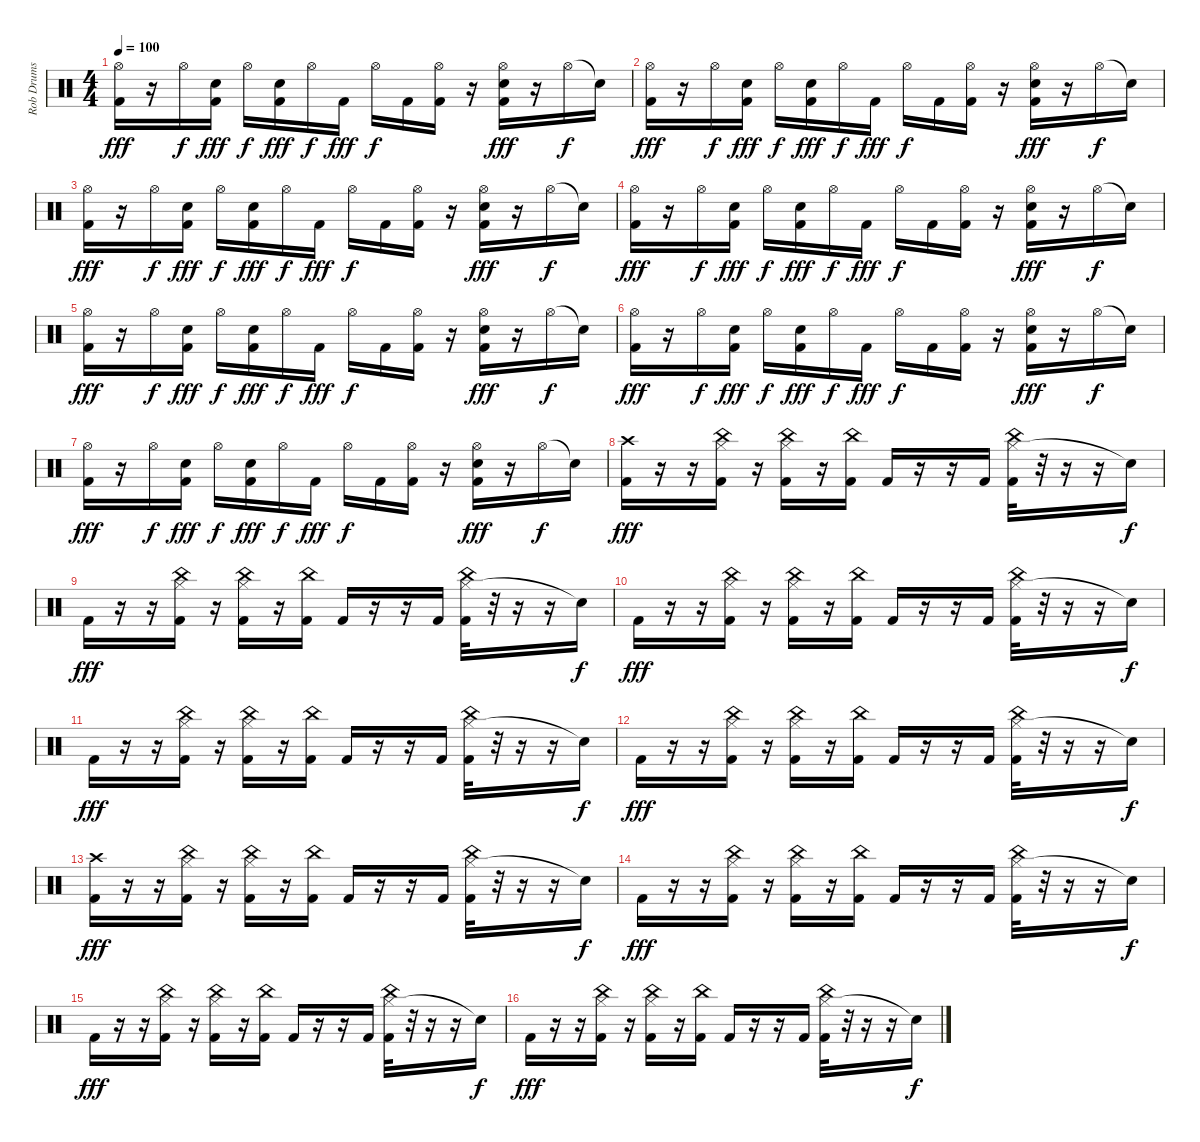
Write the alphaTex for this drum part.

\track ("Rob Drums" "Rob Drums") {instrument percussion}
\staff {score}
\articulation defaults
\ts (4 4)
\tempo 100
\clef neutral
\ks c
("Hi-Hat (open)" "Kick (hit) 2").16{dy fff} r.16 "Hi-Hat (open)".16{dy f} ("Snare (hit) 2" "Kick (hit) 2").16{dy fff} "Hi-Hat (open)".16{dy f} ("Snare (hit) 2" "Kick (hit) 2").16{dy fff} "Hi-Hat (open)".16{dy f} "Kick (hit) 2".16{dy fff} "Hi-Hat (open)".16{dy f} "Kick (hit) 2".16 ("Hi-Hat (open)" "Kick (hit) 2").16 r.16 ("Hi-Hat (open)" "Snare (hit) 2" "Kick (hit) 2").16{dy fff} r.16 "Hi-Hat (open)".16{dy f} "Snare (hit)"{t}.16 |
("Hi-Hat (open)" "Kick (hit) 2").16{dy fff} r.16 "Hi-Hat (open)".16{dy f} ("Snare (hit) 2" "Kick (hit) 2").16{dy fff} "Hi-Hat (open)".16{dy f} ("Snare (hit) 2" "Kick (hit) 2").16{dy fff} "Hi-Hat (open)".16{dy f} "Kick (hit) 2".16{dy fff} "Hi-Hat (open)".16{dy f} "Kick (hit) 2".16 ("Hi-Hat (open)" "Kick (hit) 2").16 r.16 ("Hi-Hat (open)" "Snare (hit) 2" "Kick (hit) 2").16{dy fff} r.16 "Hi-Hat (open)".16{dy f} "Snare (hit)"{t}.16 |
("Hi-Hat (open)" "Kick (hit) 2").16{dy fff} r.16 "Hi-Hat (open)".16{dy f} ("Snare (hit) 2" "Kick (hit) 2").16{dy fff} "Hi-Hat (open)".16{dy f} ("Snare (hit) 2" "Kick (hit) 2").16{dy fff} "Hi-Hat (open)".16{dy f} "Kick (hit) 2".16{dy fff} "Hi-Hat (open)".16{dy f} "Kick (hit) 2".16 ("Hi-Hat (open)" "Kick (hit) 2").16 r.16 ("Hi-Hat (open)" "Snare (hit) 2" "Kick (hit) 2").16{dy fff} r.16 "Hi-Hat (open)".16{dy f} "Snare (hit)"{t}.16 |
("Hi-Hat (open)" "Kick (hit) 2").16{dy fff} r.16 "Hi-Hat (open)".16{dy f} ("Snare (hit) 2" "Kick (hit) 2").16{dy fff} "Hi-Hat (open)".16{dy f} ("Snare (hit) 2" "Kick (hit) 2").16{dy fff} "Hi-Hat (open)".16{dy f} "Kick (hit) 2".16{dy fff} "Hi-Hat (open)".16{dy f} "Kick (hit) 2".16 ("Hi-Hat (open)" "Kick (hit) 2").16 r.16 ("Hi-Hat (open)" "Snare (hit) 2" "Kick (hit) 2").16{dy fff} r.16 "Hi-Hat (open)".16{dy f} "Snare (hit)"{t}.16 |
("Hi-Hat (open)" "Kick (hit) 2").16{dy fff} r.16 "Hi-Hat (open)".16{dy f} ("Snare (hit) 2" "Kick (hit) 2").16{dy fff} "Hi-Hat (open)".16{dy f} ("Snare (hit) 2" "Kick (hit) 2").16{dy fff} "Hi-Hat (open)".16{dy f} "Kick (hit) 2".16{dy fff} "Hi-Hat (open)".16{dy f} "Kick (hit) 2".16 ("Hi-Hat (open)" "Kick (hit) 2").16 r.16 ("Hi-Hat (open)" "Snare (hit) 2" "Kick (hit) 2").16{dy fff} r.16 "Hi-Hat (open)".16{dy f} "Snare (hit)"{t}.16 |
("Hi-Hat (open)" "Kick (hit) 2").16{dy fff} r.16 "Hi-Hat (open)".16{dy f} ("Snare (hit) 2" "Kick (hit) 2").16{dy fff} "Hi-Hat (open)".16{dy f} ("Snare (hit) 2" "Kick (hit) 2").16{dy fff} "Hi-Hat (open)".16{dy f} "Kick (hit) 2".16{dy fff} "Hi-Hat (open)".16{dy f} "Kick (hit) 2".16 ("Hi-Hat (open)" "Kick (hit) 2").16 r.16 ("Hi-Hat (open)" "Snare (hit) 2" "Kick (hit) 2").16{dy fff} r.16 "Hi-Hat (open)".16{dy f} "Snare (hit)"{t}.16 |
("Hi-Hat (open)" "Kick (hit) 2").16{dy fff} r.16 "Hi-Hat (open)".16{dy f} ("Snare (hit) 2" "Kick (hit) 2").16{dy fff} "Hi-Hat (open)".16{dy f} ("Snare (hit) 2" "Kick (hit) 2").16{dy fff} "Hi-Hat (open)".16{dy f} "Kick (hit) 2".16{dy fff} "Hi-Hat (open)".16{dy f} "Kick (hit) 2".16 ("Hi-Hat (open)" "Kick (hit) 2").16 r.16 ("Hi-Hat (open)" "Snare (hit) 2" "Kick (hit) 2").16{dy fff} r.16 "Hi-Hat (open)".16{dy f} "Snare (hit)"{t}.16 |
("Crash high (hit)" "Kick (hit) 2").16{dy fff volume 10} r.16 r.16 ("Hi-Hat (closed)" "China (hit)" "Kick (hit) 2").16 r.16 ("Hi-Hat (closed)" "China (hit)" "Kick (hit) 2").16 r.16 ("China (hit)" "Kick (hit) 2").16 "Kick (hit) 2".16 r.16 r.16 "Kick (hit) 2".16 ("Hi-Hat (closed)" "China (hit)" "Kick (hit) 2").32 r.32 r.16 r.16 "Snare (hit)"{t}.16{dy f} |
"Kick (hit) 2".16{dy fff} r.16 r.16 ("Hi-Hat (closed)" "China (hit)" "Kick (hit) 2").16 r.16 ("Hi-Hat (closed)" "China (hit)" "Kick (hit) 2").16 r.16 ("China (hit)" "Kick (hit) 2").16 "Kick (hit) 2".16 r.16 r.16 "Kick (hit) 2".16 ("Hi-Hat (closed)" "China (hit)" "Kick (hit) 2").32 r.32 r.16 r.16 "Snare (hit)"{t}.16{dy f} |
"Kick (hit) 2".16{dy fff volume 13} r.16 r.16 ("Hi-Hat (closed)" "China (hit)" "Kick (hit) 2").16 r.16 ("Hi-Hat (closed)" "China (hit)" "Kick (hit) 2").16 r.16 ("China (hit)" "Kick (hit) 2").16 "Kick (hit) 2".16 r.16 r.16 "Kick (hit) 2".16 ("Hi-Hat (closed)" "China (hit)" "Kick (hit) 2").32 r.32 r.16 r.16 "Snare (hit)"{t}.16{dy f} |
"Kick (hit) 2".16{dy fff volume 13} r.16 r.16 ("Hi-Hat (closed)" "China (hit)" "Kick (hit) 2").16 r.16 ("Hi-Hat (closed)" "China (hit)" "Kick (hit) 2").16 r.16 ("China (hit)" "Kick (hit) 2").16 "Kick (hit) 2".16 r.16 r.16 "Kick (hit) 2".16 ("Hi-Hat (closed)" "China (hit)" "Kick (hit) 2").32 r.32 r.16 r.16 "Snare (hit)"{t}.16{dy f} |
"Kick (hit) 2".16{dy fff volume 13} r.16 r.16 ("Hi-Hat (closed)" "China (hit)" "Kick (hit) 2").16 r.16 ("Hi-Hat (closed)" "China (hit)" "Kick (hit) 2").16 r.16 ("China (hit)" "Kick (hit) 2").16 "Kick (hit) 2".16 r.16 r.16 "Kick (hit) 2".16 ("Hi-Hat (closed)" "China (hit)" "Kick (hit) 2").32 r.32 r.16 r.16 "Snare (hit)"{t}.16{dy f} |
("Crash high (hit)" "Kick (hit) 2").16{dy fff volume 16} r.16 r.16 ("Hi-Hat (closed)" "China (hit)" "Kick (hit) 2").16 r.16 ("Hi-Hat (closed)" "China (hit)" "Kick (hit) 2").16 r.16 ("China (hit)" "Kick (hit) 2").16 "Kick (hit) 2".16 r.16 r.16 "Kick (hit) 2".16 ("Hi-Hat (closed)" "China (hit)" "Kick (hit) 2").32 r.32 r.16 r.16 "Snare (hit)"{t}.16{dy f} |
"Kick (hit) 2".16{dy fff} r.16 r.16 ("Hi-Hat (closed)" "China (hit)" "Kick (hit) 2").16 r.16 ("Hi-Hat (closed)" "China (hit)" "Kick (hit) 2").16 r.16 ("China (hit)" "Kick (hit) 2").16 "Kick (hit) 2".16 r.16 r.16 "Kick (hit) 2".16 ("Hi-Hat (closed)" "China (hit)" "Kick (hit) 2").32 r.32 r.16 r.16 "Snare (hit)"{t}.16{dy f} |
"Kick (hit) 2".16{dy fff} r.16 r.16 ("Hi-Hat (closed)" "China (hit)" "Kick (hit) 2").16 r.16 ("Hi-Hat (closed)" "China (hit)" "Kick (hit) 2").16 r.16 ("China (hit)" "Kick (hit) 2").16 "Kick (hit) 2".16 r.16 r.16 "Kick (hit) 2".16 ("Hi-Hat (closed)" "China (hit)" "Kick (hit) 2").32 r.32 r.16 r.16 "Snare (hit)"{t}.16{dy f} |
"Kick (hit) 2".16{dy fff} r.16 r.16 ("Hi-Hat (closed)" "China (hit)" "Kick (hit) 2").16 r.16 ("Hi-Hat (closed)" "China (hit)" "Kick (hit) 2").16 r.16 ("China (hit)" "Kick (hit) 2").16 "Kick (hit) 2".16 r.16 r.16 "Kick (hit) 2".16 ("Hi-Hat (closed)" "China (hit)" "Kick (hit) 2").32 r.32 r.16 r.16 "Snare (hit)"{t}.16{dy f}
